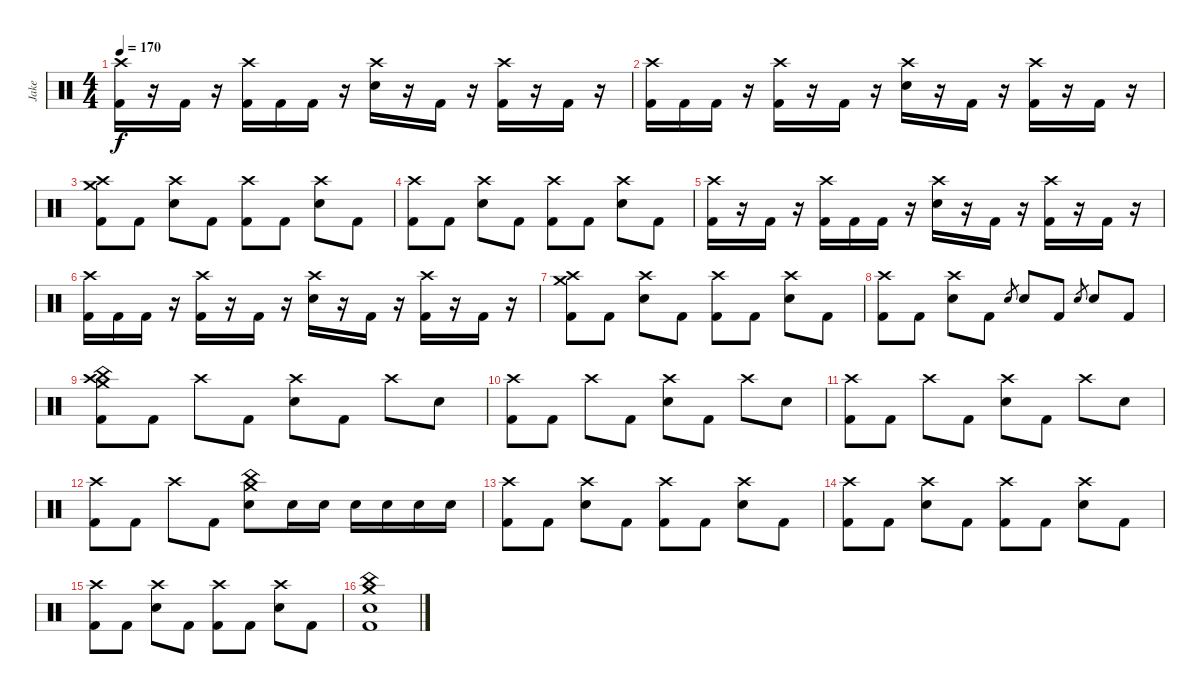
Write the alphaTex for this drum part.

\track ("Jake" "Jake") {instrument percussion}
\staff {score}
\articulation defaults
\ts (4 4)
\tempo 170
\clef neutral
\ks c
("Crash high (hit)" "Kick (hit) 2").16{dy f volume 13} r.16 "Kick (hit) 2".16 r.16 ("Crash high (hit)" "Kick (hit) 2").16 "Kick (hit) 2".16 "Kick (hit) 2".16 r.16 ("Crash high (hit)" "Electric Snare (hit)").16 r.16 "Kick (hit) 2".16 r.16 ("Crash high (hit)" "Kick (hit) 2").16 r.16 "Kick (hit) 2".16 r.16 |
("Crash high (hit)" "Kick (hit) 2").16 "Kick (hit) 2".16 "Kick (hit) 2".16 r.16 ("Crash high (hit)" "Kick (hit) 2").16 r.16 "Kick (hit) 2".16 r.16 ("Crash high (hit)" "Electric Snare (hit)").16 r.16 "Kick (hit) 2".16 r.16 ("Crash high (hit)" "Kick (hit) 2").16 r.16 "Kick (hit) 2".16 r.16 |
("Crash high (hit)" "Crash medium (hit)" "Kick (hit) 2").8 "Kick (hit) 2".8 ("Crash high (hit)" "Electric Snare (hit)").8 "Kick (hit) 2".8 ("Crash high (hit)" "Kick (hit) 2").8 "Kick (hit) 2".8 ("Crash high (hit)" "Electric Snare (hit)").8 "Kick (hit) 2".8 |
("Crash high (hit)" "Kick (hit) 2").8 "Kick (hit) 2".8 ("Crash high (hit)" "Electric Snare (hit)").8 "Kick (hit) 2".8 ("Crash high (hit)" "Kick (hit) 2").8 "Kick (hit) 2".8 ("Crash high (hit)" "Electric Snare (hit)").8 "Kick (hit) 2".8 |
("Crash high (hit)" "Kick (hit) 2").16 r.16 "Kick (hit) 2".16 r.16 ("Crash high (hit)" "Kick (hit) 2").16 "Kick (hit) 2".16 "Kick (hit) 2".16 r.16 ("Crash high (hit)" "Electric Snare (hit)").16 r.16 "Kick (hit) 2".16 r.16 ("Crash high (hit)" "Kick (hit) 2").16 r.16 "Kick (hit) 2".16 r.16 |
("Crash high (hit)" "Kick (hit) 2").16 "Kick (hit) 2".16 "Kick (hit) 2".16 r.16 ("Crash high (hit)" "Kick (hit) 2").16 r.16 "Kick (hit) 2".16 r.16 ("Crash high (hit)" "Electric Snare (hit)").16 r.16 "Kick (hit) 2".16 r.16 ("Crash high (hit)" "Kick (hit) 2").16 r.16 "Kick (hit) 2".16 r.16 |
("Crash high (hit)" "Crash medium (hit)" "Kick (hit) 2").8 "Kick (hit) 2".8 ("Crash high (hit)" "Electric Snare (hit)").8 "Kick (hit) 2".8 ("Crash high (hit)" "Kick (hit) 2").8 "Kick (hit) 2".8 ("Crash high (hit)" "Electric Snare (hit)").8 "Kick (hit) 2".8 |
("Crash high (hit)" "Kick (hit) 2").8 "Kick (hit) 2".8 ("Crash high (hit)" "Electric Snare (hit)").8 "Kick (hit) 2".8 "Electric Snare (hit)".8{gr} "Electric Snare (hit)".8 "Kick (hit) 2".8 "Electric Snare (hit)".8{gr} "Electric Snare (hit)".8 "Kick (hit) 2".8 |
("Crash high (hit)" "Crash medium (hit)" "China (hit)" "Kick (hit) 2").8 "Kick (hit) 2".8 "Crash high (hit)".8 "Kick (hit) 2".8 ("Crash high (hit)" "Electric Snare (hit)").8 "Kick (hit) 2".8 "Crash high (hit)".8 "Electric Snare (hit)".8 |
("Crash high (hit)" "Kick (hit) 2").8 "Kick (hit) 2".8 "Crash high (hit)".8 "Kick (hit) 2".8 ("Crash high (hit)" "Electric Snare (hit)").8 "Kick (hit) 2".8 "Crash high (hit)".8 "Electric Snare (hit)".8 |
("Crash high (hit)" "Kick (hit) 2").8 "Kick (hit) 2".8 "Crash high (hit)".8 "Kick (hit) 2".8 ("Crash high (hit)" "Electric Snare (hit)").8 "Kick (hit) 2".8 "Crash high (hit)".8 "Electric Snare (hit)".8 |
("Crash high (hit)" "Kick (hit) 2").8 "Kick (hit) 2".8 "Crash high (hit)".8 "Kick (hit) 2".8 ("Crash medium (hit)" "China (hit)" "Electric Snare (hit)").8 "Electric Snare (hit)".16 "Electric Snare (hit)".16 "Electric Snare (hit)".16 "Electric Snare (hit)".16 "Electric Snare (hit)".16 "Electric Snare (hit)".16 |
("Crash high (hit)" "Kick (hit) 2").8 "Kick (hit) 2".8 ("Crash high (hit)" "Electric Snare (hit)").8 "Kick (hit) 2".8 ("Crash high (hit)" "Kick (hit) 2").8 "Kick (hit) 2".8 ("Crash high (hit)" "Electric Snare (hit)").8 "Kick (hit) 2".8 |
("Crash high (hit)" "Kick (hit) 2").8 "Kick (hit) 2".8 ("Crash high (hit)" "Electric Snare (hit)").8 "Kick (hit) 2".8 ("Crash high (hit)" "Kick (hit) 2").8 "Kick (hit) 2".8 ("Crash high (hit)" "Electric Snare (hit)").8 "Kick (hit) 2".8 |
("Crash high (hit)" "Kick (hit) 2").8 "Kick (hit) 2".8 ("Crash high (hit)" "Electric Snare (hit)").8 "Kick (hit) 2".8 ("Crash high (hit)" "Kick (hit) 2").8 "Kick (hit) 2".8 ("Crash high (hit)" "Electric Snare (hit)").8 "Kick (hit) 2".8 |
("China (hit)" "Crash medium (hit)" "Electric Snare (hit)" "Kick (hit) 2").1
